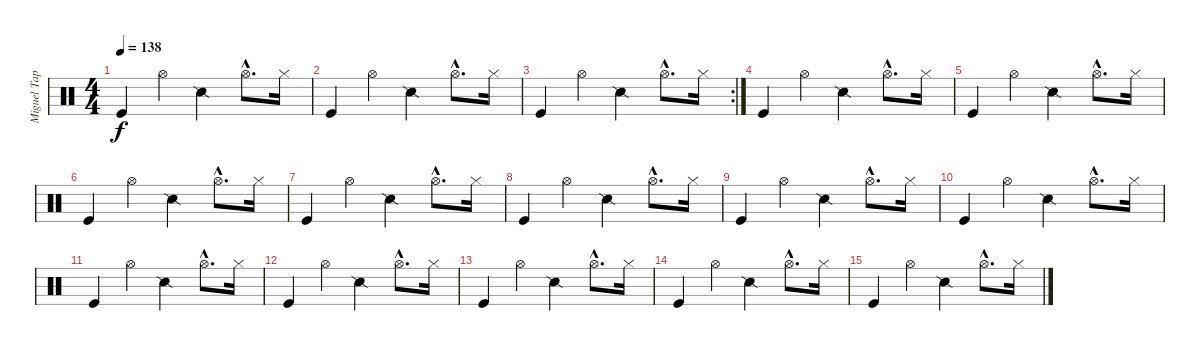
\track ("Miguel Tapia (batería)" "Miguel Tap") {instrument percussion}
\staff {score}
\articulation defaults
\ts (4 4)
\tempo 138
\clef neutral
\ks c "Kick (hit)".4{dy f} "Hi-Hat (open)".4 "Snare (side stick) 2".4 "Hi-Hat (open)"{hac}.8{d} "Hi-Hat (closed)".16
|
"Kick (hit)".4 "Hi-Hat (open)".4 "Snare (side stick) 2".4 "Hi-Hat (open)"{hac}.8{d} "Hi-Hat (closed)".16 |
\rc 2 "Kick (hit)".4 "Hi-Hat (open)".4 "Snare (side stick) 2".4 "Hi-Hat (open)"{hac}.8{d} "Hi-Hat (closed)".16
|
"Kick (hit)".4 "Hi-Hat (open)".4 "Snare (side stick) 2".4 "Hi-Hat (open)"{hac}.8{d} "Hi-Hat (closed)".16 |
"Kick (hit)".4 "Hi-Hat (open)".4 "Snare (side stick) 2".4 "Hi-Hat (open)"{hac}.8{d} "Hi-Hat (closed)".16 |
"Kick (hit)".4 "Hi-Hat (open)".4 "Snare (side stick) 2".4 "Hi-Hat (open)"{hac}.8{d} "Hi-Hat (closed)".16 |
"Kick (hit)".4 "Hi-Hat (open)".4 "Snare (side stick) 2".4 "Hi-Hat (open)"{hac}.8{d} "Hi-Hat (closed)".16 |
"Kick (hit)".4 "Hi-Hat (open)".4 "Snare (side stick) 2".4 "Hi-Hat (open)"{hac}.8{d} "Hi-Hat (closed)".16 |
"Kick (hit)".4 "Hi-Hat (open)".4 "Snare (side stick) 2".4 "Hi-Hat (open)"{hac}.8{d} "Hi-Hat (closed)".16 |
"Kick (hit)".4 "Hi-Hat (open)".4 "Snare (side stick) 2".4 "Hi-Hat (open)"{hac}.8{d} "Hi-Hat (closed)".16 |
"Kick (hit)".4 "Hi-Hat (open)".4 "Snare (side stick) 2".4 "Hi-Hat (open)"{hac}.8{d} "Hi-Hat (closed)".16 |
"Kick (hit)".4 "Hi-Hat (open)".4 "Snare (side stick) 2".4 "Hi-Hat (open)"{hac}.8{d} "Hi-Hat (closed)".16 |
"Kick (hit)".4 "Hi-Hat (open)".4 "Snare (side stick) 2".4 "Hi-Hat (open)"{hac}.8{d} "Hi-Hat (closed)".16 |
"Kick (hit)".4 "Hi-Hat (open)".4 "Snare (side stick) 2".4 "Hi-Hat (open)"{hac}.8{d} "Hi-Hat (closed)".16 |
"Kick (hit)".4 "Hi-Hat (open)".4 "Snare (side stick) 2".4 "Hi-Hat (open)"{hac}.8{d} "Hi-Hat (closed)".16
